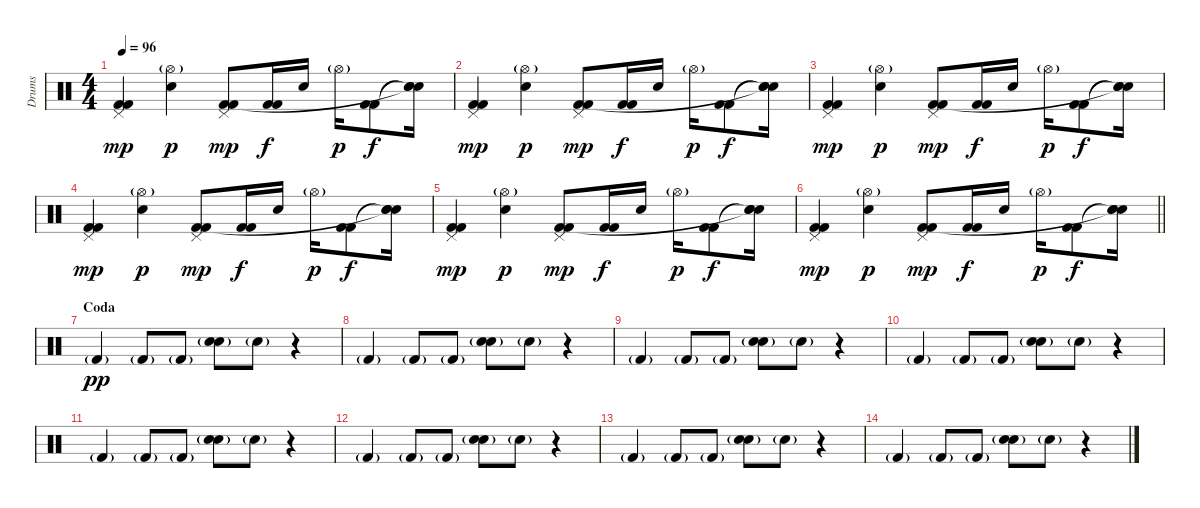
\track ("Drums" "Drums") {instrument percussion}
\staff {score}
\articulation defaults
\ts (4 4)
\tempo 96
\clef neutral
\ks c
("Pedal Hi-Hat (hit)" "Kick (hit) 2" "Kick (hit) 2").4{dy mp} ("Hi-Hat (open)"{g} "Snare (hit) 2").4{dy p} ("Pedal Hi-Hat (hit)" "Kick (hit) 2" "Kick (hit) 2").8{dy mp} ("Kick (hit) 2" "Kick (hit) 2").16{dy f} "Snare (hit) 2".16 "Hi-Hat (open)"{g}.16{dy p} ("Kick (hit) 2" "Kick (hit) 2").8{dy f} ("Snare (hit)"{t} "Snare (hit)"{t} "Snare (hit)"{t}).16 |
("Pedal Hi-Hat (hit)" "Kick (hit) 2" "Kick (hit) 2").4{dy mp} ("Hi-Hat (open)"{g} "Snare (hit) 2").4{dy p} ("Pedal Hi-Hat (hit)" "Kick (hit) 2" "Kick (hit) 2").8{dy mp} ("Kick (hit) 2" "Kick (hit) 2").16{dy f} "Snare (hit) 2".16 "Hi-Hat (open)"{g}.16{dy p} ("Kick (hit) 2" "Kick (hit) 2").8{dy f} ("Snare (hit)"{t} "Snare (hit)"{t} "Snare (hit)"{t}).16 |
("Pedal Hi-Hat (hit)" "Kick (hit) 2" "Kick (hit) 2").4{dy mp} ("Hi-Hat (open)"{g} "Snare (hit) 2").4{dy p} ("Pedal Hi-Hat (hit)" "Kick (hit) 2" "Kick (hit) 2").8{dy mp} ("Kick (hit) 2" "Kick (hit) 2").16{dy f} "Snare (hit) 2".16 "Hi-Hat (open)"{g}.16{dy p} ("Kick (hit) 2" "Kick (hit) 2").8{dy f} ("Snare (hit)"{t} "Snare (hit)"{t} "Snare (hit)"{t}).16 |
("Pedal Hi-Hat (hit)" "Kick (hit) 2" "Kick (hit) 2").4{dy mp} ("Hi-Hat (open)"{g} "Snare (hit) 2").4{dy p} ("Pedal Hi-Hat (hit)" "Kick (hit) 2" "Kick (hit) 2").8{dy mp} ("Kick (hit) 2" "Kick (hit) 2").16{dy f} "Snare (hit) 2".16 "Hi-Hat (open)"{g}.16{dy p} ("Kick (hit) 2" "Kick (hit) 2").8{dy f} ("Snare (hit)"{t} "Snare (hit)"{t} "Snare (hit)"{t}).16 |
("Pedal Hi-Hat (hit)" "Kick (hit) 2" "Kick (hit) 2").4{dy mp} ("Hi-Hat (open)"{g} "Snare (hit) 2").4{dy p} ("Pedal Hi-Hat (hit)" "Kick (hit) 2" "Kick (hit) 2").8{dy mp} ("Kick (hit) 2" "Kick (hit) 2").16{dy f} "Snare (hit) 2".16 "Hi-Hat (open)"{g}.16{dy p} ("Kick (hit) 2" "Kick (hit) 2").8{dy f} ("Snare (hit)"{t} "Snare (hit)"{t} "Snare (hit)"{t}).16 |
\barLineRight lightlight
("Pedal Hi-Hat (hit)" "Kick (hit) 2" "Kick (hit) 2").4{dy mp} ("Hi-Hat (open)"{g} "Snare (hit) 2").4{dy p} ("Pedal Hi-Hat (hit)" "Kick (hit) 2" "Kick (hit) 2").8{dy mp} ("Kick (hit) 2" "Kick (hit) 2").16{dy f} "Snare (hit) 2".16 "Hi-Hat (open)"{g}.16{dy p} ("Kick (hit) 2" "Kick (hit) 2").8{dy f} ("Snare (hit)"{t} "Snare (hit)"{t} "Snare (hit)"{t}).16 |
\section ("" "Coda")
"Kick (hit) 2"{g}.4{dy pp} "Kick (hit) 2"{g}.8 "Kick (hit) 2"{g}.8 ("Snare (hit) 2"{g} "Snare (hit) 2"{g}).8 "Snare (hit) 2"{g}.8 r.4 |
"Kick (hit) 2"{g}.4 "Kick (hit) 2"{g}.8 "Kick (hit) 2"{g}.8 ("Snare (hit) 2"{g} "Snare (hit) 2"{g}).8 "Snare (hit) 2"{g}.8 r.4 |
"Kick (hit) 2"{g}.4 "Kick (hit) 2"{g}.8 "Kick (hit) 2"{g}.8 ("Snare (hit) 2"{g} "Snare (hit) 2"{g}).8 "Snare (hit) 2"{g}.8 r.4 |
"Kick (hit) 2"{g}.4 "Kick (hit) 2"{g}.8 "Kick (hit) 2"{g}.8 ("Snare (hit) 2"{g} "Snare (hit) 2"{g}).8 "Snare (hit) 2"{g}.8 r.4 |
"Kick (hit) 2"{g}.4 "Kick (hit) 2"{g}.8 "Kick (hit) 2"{g}.8 ("Snare (hit) 2"{g} "Snare (hit) 2"{g}).8 "Snare (hit) 2"{g}.8 r.4 |
"Kick (hit) 2"{g}.4 "Kick (hit) 2"{g}.8 "Kick (hit) 2"{g}.8 ("Snare (hit) 2"{g} "Snare (hit) 2"{g}).8 "Snare (hit) 2"{g}.8 r.4 |
"Kick (hit) 2"{g}.4 "Kick (hit) 2"{g}.8 "Kick (hit) 2"{g}.8 ("Snare (hit) 2"{g} "Snare (hit) 2"{g}).8 "Snare (hit) 2"{g}.8 r.4 |
"Kick (hit) 2"{g}.4 "Kick (hit) 2"{g}.8 "Kick (hit) 2"{g}.8 ("Snare (hit) 2"{g} "Snare (hit) 2"{g}).8 "Snare (hit) 2"{g}.8 r.4
